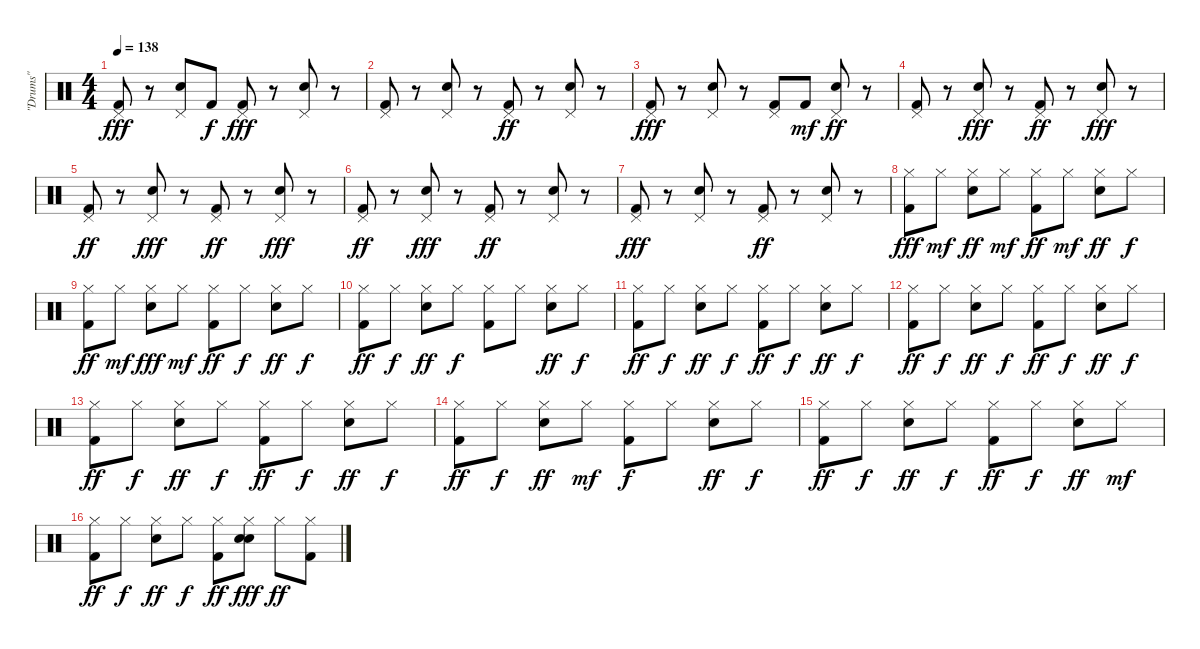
\track ("\"Drums\"" "\"Drums\"") {instrument percussion}
\staff {score}
\articulation defaults
\ts (4 4)
\tempo 138
\clef neutral
\ks c
("Kick (hit) 2" "Pedal Hi-Hat (hit)").8{dy fff} r.8 ("Electric Snare (hit)" "Pedal Hi-Hat (hit)").8 "Kick (hit) 2".8{dy f} ("Kick (hit) 2" "Pedal Hi-Hat (hit)").8{dy fff} r.8 ("Electric Snare (hit)" "Pedal Hi-Hat (hit)").8 r.8 |
("Kick (hit) 2" "Pedal Hi-Hat (hit)").8 r.8 ("Electric Snare (hit)" "Pedal Hi-Hat (hit)").8 r.8 ("Kick (hit) 2" "Pedal Hi-Hat (hit)").8{dy ff} r.8 ("Electric Snare (hit)" "Pedal Hi-Hat (hit)").8 r.8 |
("Kick (hit) 2" "Pedal Hi-Hat (hit)").8{dy fff} r.8 ("Electric Snare (hit)" "Pedal Hi-Hat (hit)").8 r.8 ("Kick (hit) 2" "Pedal Hi-Hat (hit)").8 "Kick (hit) 2".8{dy mf} ("Electric Snare (hit)" "Pedal Hi-Hat (hit)").8{dy ff} r.8 |
("Kick (hit) 2" "Pedal Hi-Hat (hit)").8 r.8 ("Electric Snare (hit)" "Pedal Hi-Hat (hit)").8{dy fff} r.8 ("Kick (hit) 2" "Pedal Hi-Hat (hit)").8{dy ff} r.8 ("Electric Snare (hit)" "Pedal Hi-Hat (hit)").8{dy fff} r.8 |
("Kick (hit) 2" "Pedal Hi-Hat (hit)").8{dy ff} r.8 ("Electric Snare (hit)" "Pedal Hi-Hat (hit)").8{dy fff} r.8 ("Kick (hit) 2" "Pedal Hi-Hat (hit)").8{dy ff} r.8 ("Electric Snare (hit)" "Pedal Hi-Hat (hit)").8{dy fff} r.8 |
("Kick (hit) 2" "Pedal Hi-Hat (hit)").8{dy ff} r.8 ("Electric Snare (hit)" "Pedal Hi-Hat (hit)").8{dy fff} r.8 ("Kick (hit) 2" "Pedal Hi-Hat (hit)").8{dy ff} r.8 ("Electric Snare (hit)" "Pedal Hi-Hat (hit)").8 r.8 |
("Kick (hit) 2" "Pedal Hi-Hat (hit)").8{dy fff} r.8 ("Electric Snare (hit)" "Pedal Hi-Hat (hit)").8 r.8 ("Kick (hit) 2" "Pedal Hi-Hat (hit)").8{dy ff} r.8 ("Electric Snare (hit)" "Pedal Hi-Hat (hit)").8 r.8 |
("Kick (hit) 2" "Hi-Hat (closed)").8{dy fff} "Hi-Hat (closed)".8{dy mf} ("Electric Snare (hit)" "Hi-Hat (closed)").8{dy ff} "Hi-Hat (closed)".8{dy mf} ("Kick (hit) 2" "Hi-Hat (closed)").8{dy ff} "Hi-Hat (closed)".8{dy mf} ("Electric Snare (hit)" "Hi-Hat (closed)").8{dy ff} "Hi-Hat (closed)".8{dy f} |
("Kick (hit) 2" "Hi-Hat (closed)").8{dy ff} "Hi-Hat (closed)".8{dy mf} ("Electric Snare (hit)" "Hi-Hat (closed)").8{dy fff} "Hi-Hat (closed)".8{dy mf} ("Kick (hit) 2" "Hi-Hat (closed)").8{dy ff} "Hi-Hat (closed)".8{dy f} ("Electric Snare (hit)" "Hi-Hat (closed)").8{dy ff} "Hi-Hat (closed)".8{dy f} |
("Kick (hit) 2" "Hi-Hat (closed)").8{dy ff} "Hi-Hat (closed)".8{dy f} ("Electric Snare (hit)" "Hi-Hat (closed)").8{dy ff} "Hi-Hat (closed)".8{dy f} ("Kick (hit) 2" "Hi-Hat (closed)").8 "Hi-Hat (closed)".8 ("Electric Snare (hit)" "Hi-Hat (closed)").8{dy ff} "Hi-Hat (closed)".8{dy f} |
("Kick (hit) 2" "Hi-Hat (closed)").8{dy ff} "Hi-Hat (closed)".8{dy f} ("Electric Snare (hit)" "Hi-Hat (closed)").8{dy ff} "Hi-Hat (closed)".8{dy f} ("Kick (hit) 2" "Hi-Hat (closed)").8{dy ff} "Hi-Hat (closed)".8{dy f} ("Electric Snare (hit)" "Hi-Hat (closed)").8{dy ff} "Hi-Hat (closed)".8{dy f} |
("Kick (hit) 2" "Hi-Hat (closed)").8{dy ff} "Hi-Hat (closed)".8{dy f} ("Electric Snare (hit)" "Hi-Hat (closed)").8{dy ff} "Hi-Hat (closed)".8{dy f} ("Kick (hit) 2" "Hi-Hat (closed)").8{dy ff} "Hi-Hat (closed)".8{dy f} ("Electric Snare (hit)" "Hi-Hat (closed)").8{dy ff} "Hi-Hat (closed)".8{dy f} |
("Kick (hit) 2" "Hi-Hat (closed)").8{dy ff} "Hi-Hat (closed)".8{dy f} ("Electric Snare (hit)" "Hi-Hat (closed)").8{dy ff} "Hi-Hat (closed)".8{dy f} ("Kick (hit) 2" "Hi-Hat (closed)").8{dy ff} "Hi-Hat (closed)".8{dy f} ("Electric Snare (hit)" "Hi-Hat (closed)").8{dy ff} "Hi-Hat (closed)".8{dy f} |
("Kick (hit) 2" "Hi-Hat (closed)").8{dy ff} "Hi-Hat (closed)".8{dy f} ("Electric Snare (hit)" "Hi-Hat (closed)").8{dy ff} "Hi-Hat (closed)".8{dy mf} ("Kick (hit) 2" "Hi-Hat (closed)").8{dy f} "Hi-Hat (closed)".8 ("Electric Snare (hit)" "Hi-Hat (closed)").8{dy ff} "Hi-Hat (closed)".8{dy f} |
("Kick (hit) 2" "Hi-Hat (closed)").8{dy ff} "Hi-Hat (closed)".8{dy f} ("Electric Snare (hit)" "Hi-Hat (closed)").8{dy ff} "Hi-Hat (closed)".8{dy f} ("Kick (hit) 2" "Hi-Hat (closed)").8{dy ff} "Hi-Hat (closed)".8{dy f} ("Electric Snare (hit)" "Hi-Hat (closed)").8{dy ff} "Hi-Hat (closed)".8{dy mf} |
("Kick (hit) 2" "Hi-Hat (closed)").8{dy ff} "Hi-Hat (closed)".8{dy f} ("Electric Snare (hit)" "Hi-Hat (closed)").8{dy ff} "Hi-Hat (closed)".8{dy f} ("Kick (hit) 2" "Hi-Hat (closed)").8{dy ff} ("Snare (hit) 2" "Electric Snare (hit)" "Hi-Hat (closed)").8{dy fff} "Hi-Hat (closed)".8{dy ff} ("Kick (hit) 2" "Hi-Hat (closed)").8
